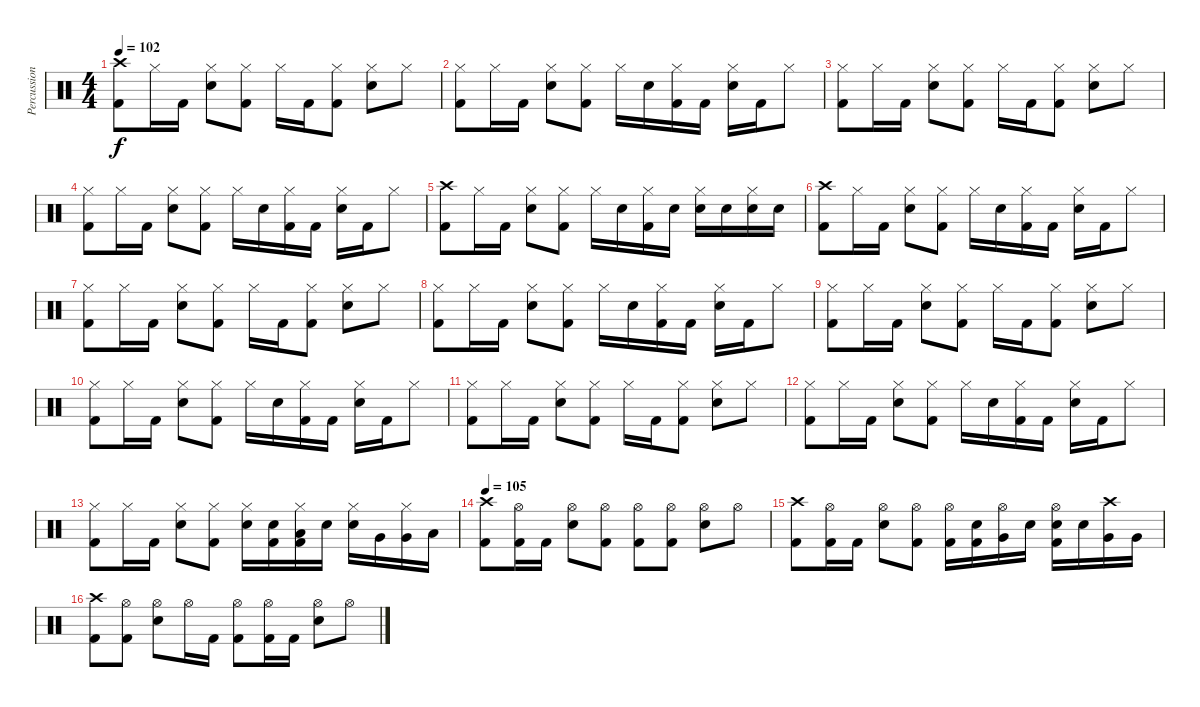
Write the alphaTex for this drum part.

\track ("Percussions" "Percussion") {instrument percussion}
\staff {score}
\articulation defaults
\ts (4 4)
\tempo 102
\clef neutral
\ks c
("Crash high (hit)" "Kick (hit) 2").8{dy f} "Hi-Hat (closed)".16 "Kick (hit) 2".16 ("Hi-Hat (closed)" "Electric Snare (hit)").8 ("Hi-Hat (closed)" "Kick (hit) 2").8 "Hi-Hat (closed)".16 "Kick (hit) 2".16 ("Hi-Hat (closed)" "Kick (hit) 2").8 ("Hi-Hat (closed)" "Electric Snare (hit)").8 "Hi-Hat (closed)".8 |
("Hi-Hat (closed)" "Kick (hit) 2").8 "Hi-Hat (closed)".16 "Kick (hit) 2".16 ("Hi-Hat (closed)" "Electric Snare (hit)").8 ("Hi-Hat (closed)" "Kick (hit) 2").8 "Hi-Hat (closed)".16 "Electric Snare (hit)".16 ("Hi-Hat (closed)" "Kick (hit) 2").16 "Kick (hit) 2".16 ("Hi-Hat (closed)" "Electric Snare (hit)").16 "Kick (hit) 2".16 "Hi-Hat (closed)".8 |
("Hi-Hat (closed)" "Kick (hit) 2").8 "Hi-Hat (closed)".16 "Kick (hit) 2".16 ("Hi-Hat (closed)" "Electric Snare (hit)").8 ("Hi-Hat (closed)" "Kick (hit) 2").8 "Hi-Hat (closed)".16 "Kick (hit) 2".16 ("Hi-Hat (closed)" "Kick (hit) 2").8 ("Hi-Hat (closed)" "Electric Snare (hit)").8 "Hi-Hat (closed)".8 |
("Hi-Hat (closed)" "Kick (hit) 2").8 "Hi-Hat (closed)".16 "Kick (hit) 2".16 ("Hi-Hat (closed)" "Electric Snare (hit)").8 ("Hi-Hat (closed)" "Kick (hit) 2").8 "Hi-Hat (closed)".16 "Electric Snare (hit)".16 ("Hi-Hat (closed)" "Kick (hit) 2").16 "Kick (hit) 2".16 ("Hi-Hat (closed)" "Electric Snare (hit)").16 "Kick (hit) 2".16 "Hi-Hat (closed)".8 |
("Crash high (hit)" "Kick (hit) 2").8 "Hi-Hat (closed)".16 "Kick (hit) 2".16 ("Hi-Hat (closed)" "Electric Snare (hit)").8 ("Hi-Hat (closed)" "Kick (hit) 2").8 "Hi-Hat (closed)".16 "Electric Snare (hit)".16 ("Hi-Hat (closed)" "Kick (hit) 2").16 "Electric Snare (hit)".16 ("Hi-Hat (closed)" "Electric Snare (hit)").16 "Electric Snare (hit)".16 ("Hi-Hat (closed)" "Electric Snare (hit)").16 "Electric Snare (hit)".16 |
("Crash high (hit)" "Kick (hit) 2").8 "Hi-Hat (closed)".16 "Kick (hit) 2".16 ("Hi-Hat (closed)" "Electric Snare (hit)").8 ("Hi-Hat (closed)" "Kick (hit) 2").8 "Hi-Hat (closed)".16 "Electric Snare (hit)".16 ("Hi-Hat (closed)" "Kick (hit) 2").16 "Kick (hit) 2".16 ("Hi-Hat (closed)" "Electric Snare (hit)").16 "Kick (hit) 2".16 "Hi-Hat (closed)".8 |
("Hi-Hat (closed)" "Kick (hit) 2").8 "Hi-Hat (closed)".16 "Kick (hit) 2".16 ("Hi-Hat (closed)" "Electric Snare (hit)").8 ("Hi-Hat (closed)" "Kick (hit) 2").8 "Hi-Hat (closed)".16 "Kick (hit) 2".16 ("Hi-Hat (closed)" "Kick (hit) 2").8 ("Hi-Hat (closed)" "Electric Snare (hit)").8 "Hi-Hat (closed)".8 |
("Hi-Hat (closed)" "Kick (hit) 2").8 "Hi-Hat (closed)".16 "Kick (hit) 2".16 ("Hi-Hat (closed)" "Electric Snare (hit)").8 ("Hi-Hat (closed)" "Kick (hit) 2").8 "Hi-Hat (closed)".16 "Electric Snare (hit)".16 ("Hi-Hat (closed)" "Kick (hit) 2").16 "Kick (hit) 2".16 ("Hi-Hat (closed)" "Electric Snare (hit)").16 "Kick (hit) 2".16 "Hi-Hat (closed)".8 |
("Hi-Hat (closed)" "Kick (hit) 2").8 "Hi-Hat (closed)".16 "Kick (hit) 2".16 ("Hi-Hat (closed)" "Electric Snare (hit)").8 ("Hi-Hat (closed)" "Kick (hit) 2").8 "Hi-Hat (closed)".16 "Kick (hit) 2".16 ("Hi-Hat (closed)" "Kick (hit) 2").8 ("Hi-Hat (closed)" "Electric Snare (hit)").8 "Hi-Hat (closed)".8 |
("Hi-Hat (closed)" "Kick (hit) 2").8 "Hi-Hat (closed)".16 "Kick (hit) 2".16 ("Hi-Hat (closed)" "Electric Snare (hit)").8 ("Hi-Hat (closed)" "Kick (hit) 2").8 "Hi-Hat (closed)".16 "Electric Snare (hit)".16 ("Hi-Hat (closed)" "Kick (hit) 2").16 "Kick (hit) 2".16 ("Hi-Hat (closed)" "Electric Snare (hit)").16 "Kick (hit) 2".16 "Hi-Hat (closed)".8 |
("Hi-Hat (closed)" "Kick (hit) 2").8 "Hi-Hat (closed)".16 "Kick (hit) 2".16 ("Hi-Hat (closed)" "Electric Snare (hit)").8 ("Hi-Hat (closed)" "Kick (hit) 2").8 "Hi-Hat (closed)".16 "Kick (hit) 2".16 ("Hi-Hat (closed)" "Kick (hit) 2").8 ("Hi-Hat (closed)" "Electric Snare (hit)").8 "Hi-Hat (closed)".8 |
("Hi-Hat (closed)" "Kick (hit) 2").8 "Hi-Hat (closed)".16 "Kick (hit) 2".16 ("Hi-Hat (closed)" "Electric Snare (hit)").8 ("Hi-Hat (closed)" "Kick (hit) 2").8 "Hi-Hat (closed)".16 "Electric Snare (hit)".16 ("Hi-Hat (closed)" "Kick (hit) 2").16 "Kick (hit) 2".16 ("Hi-Hat (closed)" "Electric Snare (hit)").16 "Kick (hit) 2".16 "Hi-Hat (closed)".8 |
("Hi-Hat (closed)" "Kick (hit) 2").8 "Hi-Hat (closed)".16 "Kick (hit) 2".16 ("Hi-Hat (closed)" "Electric Snare (hit)").8 ("Hi-Hat (closed)" "Kick (hit) 2").8 ("Hi-Hat (closed)" "Electric Snare (hit)").16 ("Electric Snare (hit)" "Kick (hit) 2").16 ("Hi-Hat (closed)" "Low Floor Tom (hit)" "Kick (hit) 2").16 "Electric Snare (hit)".16 ("Hi-Hat (closed)" "Electric Snare (hit)").16 "Very Low Tom (hit)".16 ("Hi-Hat (closed)" "Very Low Tom (hit)").16 "Low Floor Tom (hit)".16 |
\tempo 105
("Crash high (hit)" "Kick (hit) 2").8 ("Hi-Hat (open)" "Kick (hit) 2").16 "Kick (hit) 2".16 ("Hi-Hat (open)" "Electric Snare (hit)").8 ("Hi-Hat (open)" "Kick (hit) 2").8 ("Hi-Hat (open)" "Kick (hit) 2").8 ("Hi-Hat (open)" "Kick (hit) 2").8 ("Hi-Hat (open)" "Electric Snare (hit)").8 "Hi-Hat (open)".8 |
("Crash high (hit)" "Kick (hit) 2").8 ("Hi-Hat (open)" "Kick (hit) 2").16 "Kick (hit) 2".16 ("Hi-Hat (open)" "Electric Snare (hit)").8 ("Hi-Hat (open)" "Kick (hit) 2").8 ("Hi-Hat (open)" "Kick (hit) 2").16 ("Electric Snare (hit)" "Kick (hit) 2").16 ("Hi-Hat (open)" "Very Low Tom (hit)").16 "Electric Snare (hit)".16 ("Hi-Hat (open)" "Electric Snare (hit)" "Kick (hit) 2").16 "Electric Snare (hit)".16 ("Crash high (hit)" "Very Low Tom (hit)").16 "Very Low Tom (hit)".16 |
("Crash high (hit)" "Kick (hit) 2").8 ("Hi-Hat (open)" "Kick (hit) 2").8 ("Hi-Hat (open)" "Electric Snare (hit)").8 "Hi-Hat (open)".16 "Kick (hit) 2".16 ("Hi-Hat (open)" "Kick (hit) 2").8 ("Hi-Hat (open)" "Kick (hit) 2").16 "Kick (hit) 2".16 ("Hi-Hat (open)" "Electric Snare (hit)").8 "Hi-Hat (open)".8
